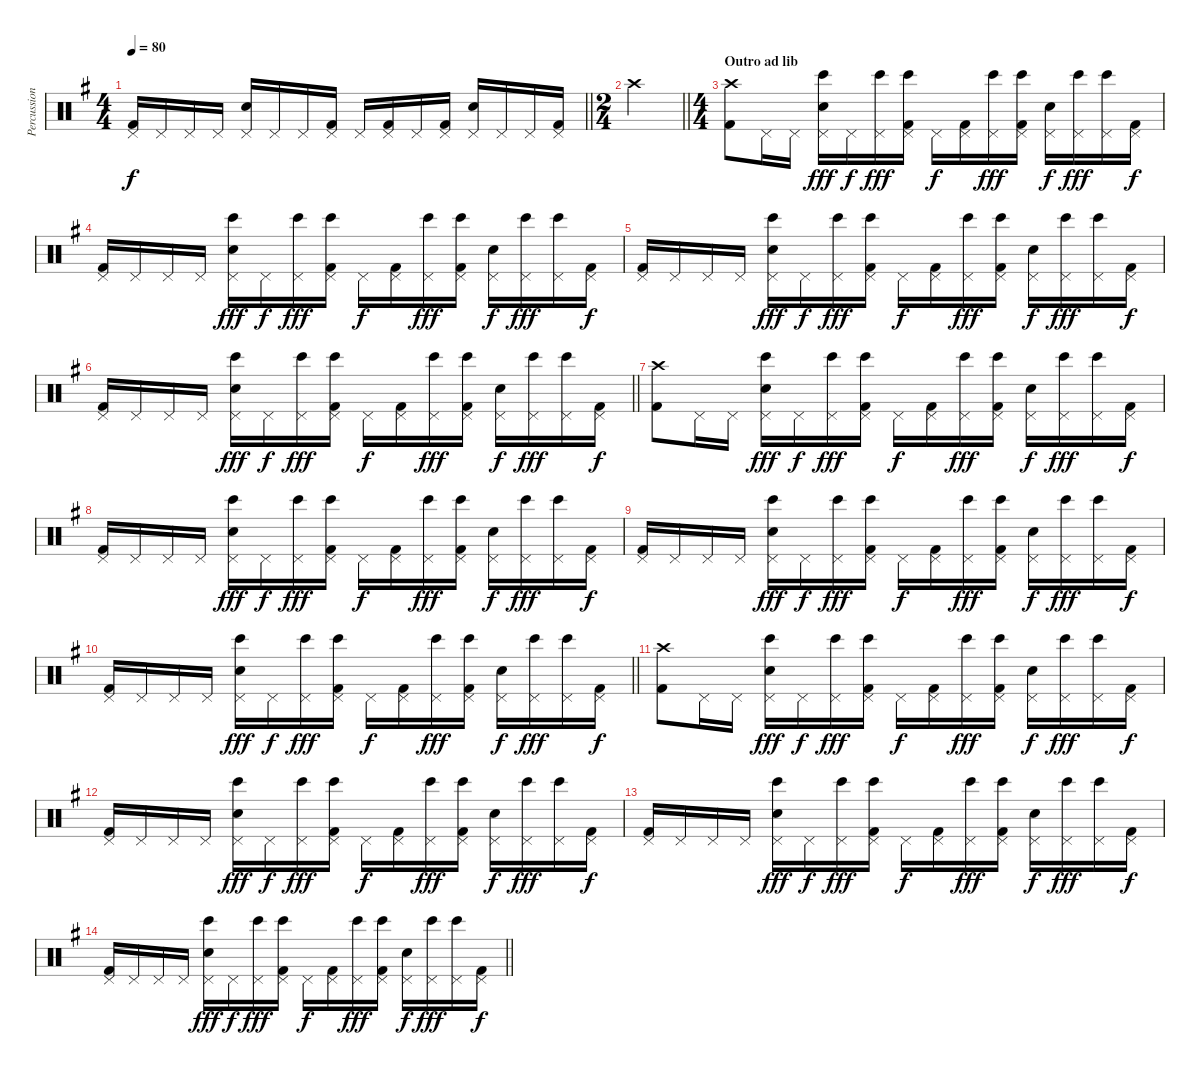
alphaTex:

\track ("Percussion" "Percussion") {instrument percussion}
\staff {score}
\articulation defaults
\ts (4 4)
\tempo 80
\clef neutral
\barLineRight lightlight
\ks g
("Pedal Hi-Hat (hit)" "Kick (hit) 2").16{dy f} "Pedal Hi-Hat (hit)".16 "Pedal Hi-Hat (hit)".16 "Pedal Hi-Hat (hit)".16 ("Pedal Hi-Hat (hit)" "Electric Snare (hit)").16 "Pedal Hi-Hat (hit)".16 "Pedal Hi-Hat (hit)".16 ("Pedal Hi-Hat (hit)" "Kick (hit) 2").16 "Pedal Hi-Hat (hit)".16 ("Pedal Hi-Hat (hit)" "Kick (hit) 2").16 "Pedal Hi-Hat (hit)".16 ("Pedal Hi-Hat (hit)" "Kick (hit) 2").16 ("Pedal Hi-Hat (hit)" "Electric Snare (hit)").16 "Pedal Hi-Hat (hit)".16 "Pedal Hi-Hat (hit)".16 ("Pedal Hi-Hat (hit)" "Kick (hit) 2").16 |
\ts (2 4)
\barLineRight lightlight "Crash high (hit)".2
|
\ts (4 4)
\section ("" "Outro ad lib")
("Crash high (hit)" "Kick (hit) 2").8 "Pedal Hi-Hat (hit)".16 "Pedal Hi-Hat (hit)".16 ("Bongo High (hit)" "Pedal Hi-Hat (hit)" "Electric Snare (hit)").16{dy fff} "Pedal Hi-Hat (hit)".16{dy f} ("Bongo High (hit)" "Pedal Hi-Hat (hit)").16{dy fff} ("Bongo High (hit)" "Pedal Hi-Hat (hit)" "Kick (hit) 2").16 "Pedal Hi-Hat (hit)".16{dy f} ("Pedal Hi-Hat (hit)" "Kick (hit) 2").16 ("Bongo High (hit)" "Pedal Hi-Hat (hit)").16{dy fff} ("Bongo High (hit)" "Pedal Hi-Hat (hit)" "Kick (hit) 2").16 ("Pedal Hi-Hat (hit)" "Electric Snare (hit)").16{dy f} ("Bongo High (hit)" "Pedal Hi-Hat (hit)").16{dy fff} ("Bongo High (hit)" "Pedal Hi-Hat (hit)").16 ("Pedal Hi-Hat (hit)" "Kick (hit) 2").16{dy f} |
("Pedal Hi-Hat (hit)" "Kick (hit) 2").16 "Pedal Hi-Hat (hit)".16 "Pedal Hi-Hat (hit)".16 "Pedal Hi-Hat (hit)".16 ("Bongo High (hit)" "Pedal Hi-Hat (hit)" "Electric Snare (hit)").16{dy fff} "Pedal Hi-Hat (hit)".16{dy f} ("Bongo High (hit)" "Pedal Hi-Hat (hit)").16{dy fff} ("Bongo High (hit)" "Pedal Hi-Hat (hit)" "Kick (hit) 2").16 "Pedal Hi-Hat (hit)".16{dy f} ("Pedal Hi-Hat (hit)" "Kick (hit) 2").16 ("Bongo High (hit)" "Pedal Hi-Hat (hit)").16{dy fff} ("Bongo High (hit)" "Pedal Hi-Hat (hit)" "Kick (hit) 2").16 ("Pedal Hi-Hat (hit)" "Electric Snare (hit)").16{dy f} ("Bongo High (hit)" "Pedal Hi-Hat (hit)").16{dy fff} ("Bongo High (hit)" "Pedal Hi-Hat (hit)").16 ("Pedal Hi-Hat (hit)" "Kick (hit) 2").16{dy f} |
("Pedal Hi-Hat (hit)" "Kick (hit) 2").16 "Pedal Hi-Hat (hit)".16 "Pedal Hi-Hat (hit)".16 "Pedal Hi-Hat (hit)".16 ("Bongo High (hit)" "Pedal Hi-Hat (hit)" "Electric Snare (hit)").16{dy fff} "Pedal Hi-Hat (hit)".16{dy f} ("Bongo High (hit)" "Pedal Hi-Hat (hit)").16{dy fff} ("Bongo High (hit)" "Pedal Hi-Hat (hit)" "Kick (hit) 2").16 "Pedal Hi-Hat (hit)".16{dy f} ("Pedal Hi-Hat (hit)" "Kick (hit) 2").16 ("Bongo High (hit)" "Pedal Hi-Hat (hit)").16{dy fff} ("Bongo High (hit)" "Pedal Hi-Hat (hit)" "Kick (hit) 2").16 ("Pedal Hi-Hat (hit)" "Electric Snare (hit)").16{dy f} ("Bongo High (hit)" "Pedal Hi-Hat (hit)").16{dy fff} ("Bongo High (hit)" "Pedal Hi-Hat (hit)").16 ("Pedal Hi-Hat (hit)" "Kick (hit) 2").16{dy f} |
\barLineRight lightlight
("Pedal Hi-Hat (hit)" "Kick (hit) 2").16 "Pedal Hi-Hat (hit)".16 "Pedal Hi-Hat (hit)".16 "Pedal Hi-Hat (hit)".16 ("Bongo High (hit)" "Pedal Hi-Hat (hit)" "Electric Snare (hit)").16{dy fff} "Pedal Hi-Hat (hit)".16{dy f} ("Bongo High (hit)" "Pedal Hi-Hat (hit)").16{dy fff} ("Bongo High (hit)" "Pedal Hi-Hat (hit)" "Kick (hit) 2").16 "Pedal Hi-Hat (hit)".16{dy f} ("Pedal Hi-Hat (hit)" "Kick (hit) 2").16 ("Bongo High (hit)" "Pedal Hi-Hat (hit)").16{dy fff} ("Bongo High (hit)" "Pedal Hi-Hat (hit)" "Kick (hit) 2").16 ("Pedal Hi-Hat (hit)" "Electric Snare (hit)").16{dy f} ("Bongo High (hit)" "Pedal Hi-Hat (hit)").16{dy fff} ("Bongo High (hit)" "Pedal Hi-Hat (hit)").16 ("Pedal Hi-Hat (hit)" "Kick (hit) 2").16{dy f} |
("Crash high (hit)" "Kick (hit) 2").8 "Pedal Hi-Hat (hit)".16 "Pedal Hi-Hat (hit)".16 ("Bongo High (hit)" "Pedal Hi-Hat (hit)" "Electric Snare (hit)").16{dy fff} "Pedal Hi-Hat (hit)".16{dy f} ("Bongo High (hit)" "Pedal Hi-Hat (hit)").16{dy fff} ("Bongo High (hit)" "Pedal Hi-Hat (hit)" "Kick (hit) 2").16 "Pedal Hi-Hat (hit)".16{dy f} ("Pedal Hi-Hat (hit)" "Kick (hit) 2").16 ("Bongo High (hit)" "Pedal Hi-Hat (hit)").16{dy fff} ("Bongo High (hit)" "Pedal Hi-Hat (hit)" "Kick (hit) 2").16 ("Pedal Hi-Hat (hit)" "Electric Snare (hit)").16{dy f} ("Bongo High (hit)" "Pedal Hi-Hat (hit)").16{dy fff} ("Bongo High (hit)" "Pedal Hi-Hat (hit)").16 ("Pedal Hi-Hat (hit)" "Kick (hit) 2").16{dy f} |
("Pedal Hi-Hat (hit)" "Kick (hit) 2").16 "Pedal Hi-Hat (hit)".16 "Pedal Hi-Hat (hit)".16 "Pedal Hi-Hat (hit)".16 ("Bongo High (hit)" "Pedal Hi-Hat (hit)" "Electric Snare (hit)").16{dy fff} "Pedal Hi-Hat (hit)".16{dy f} ("Bongo High (hit)" "Pedal Hi-Hat (hit)").16{dy fff} ("Bongo High (hit)" "Pedal Hi-Hat (hit)" "Kick (hit) 2").16 "Pedal Hi-Hat (hit)".16{dy f} ("Pedal Hi-Hat (hit)" "Kick (hit) 2").16 ("Bongo High (hit)" "Pedal Hi-Hat (hit)").16{dy fff} ("Bongo High (hit)" "Pedal Hi-Hat (hit)" "Kick (hit) 2").16 ("Pedal Hi-Hat (hit)" "Electric Snare (hit)").16{dy f} ("Bongo High (hit)" "Pedal Hi-Hat (hit)").16{dy fff} ("Bongo High (hit)" "Pedal Hi-Hat (hit)").16 ("Pedal Hi-Hat (hit)" "Kick (hit) 2").16{dy f} |
("Pedal Hi-Hat (hit)" "Kick (hit) 2").16 "Pedal Hi-Hat (hit)".16 "Pedal Hi-Hat (hit)".16 "Pedal Hi-Hat (hit)".16 ("Bongo High (hit)" "Pedal Hi-Hat (hit)" "Electric Snare (hit)").16{dy fff} "Pedal Hi-Hat (hit)".16{dy f} ("Bongo High (hit)" "Pedal Hi-Hat (hit)").16{dy fff} ("Bongo High (hit)" "Pedal Hi-Hat (hit)" "Kick (hit) 2").16 "Pedal Hi-Hat (hit)".16{dy f} ("Pedal Hi-Hat (hit)" "Kick (hit) 2").16 ("Bongo High (hit)" "Pedal Hi-Hat (hit)").16{dy fff} ("Bongo High (hit)" "Pedal Hi-Hat (hit)" "Kick (hit) 2").16 ("Pedal Hi-Hat (hit)" "Electric Snare (hit)").16{dy f} ("Bongo High (hit)" "Pedal Hi-Hat (hit)").16{dy fff} ("Bongo High (hit)" "Pedal Hi-Hat (hit)").16 ("Pedal Hi-Hat (hit)" "Kick (hit) 2").16{dy f} |
\barLineRight lightlight
("Pedal Hi-Hat (hit)" "Kick (hit) 2").16 "Pedal Hi-Hat (hit)".16 "Pedal Hi-Hat (hit)".16 "Pedal Hi-Hat (hit)".16 ("Bongo High (hit)" "Pedal Hi-Hat (hit)" "Electric Snare (hit)").16{dy fff} "Pedal Hi-Hat (hit)".16{dy f} ("Bongo High (hit)" "Pedal Hi-Hat (hit)").16{dy fff} ("Bongo High (hit)" "Pedal Hi-Hat (hit)" "Kick (hit) 2").16 "Pedal Hi-Hat (hit)".16{dy f} ("Pedal Hi-Hat (hit)" "Kick (hit) 2").16 ("Bongo High (hit)" "Pedal Hi-Hat (hit)").16{dy fff} ("Bongo High (hit)" "Pedal Hi-Hat (hit)" "Kick (hit) 2").16 ("Pedal Hi-Hat (hit)" "Electric Snare (hit)").16{dy f} ("Bongo High (hit)" "Pedal Hi-Hat (hit)").16{dy fff} ("Bongo High (hit)" "Pedal Hi-Hat (hit)").16 ("Pedal Hi-Hat (hit)" "Kick (hit) 2").16{dy f} |
("Crash high (hit)" "Kick (hit) 2").8 "Pedal Hi-Hat (hit)".16 "Pedal Hi-Hat (hit)".16 ("Bongo High (hit)" "Pedal Hi-Hat (hit)" "Electric Snare (hit)").16{dy fff} "Pedal Hi-Hat (hit)".16{dy f} ("Bongo High (hit)" "Pedal Hi-Hat (hit)").16{dy fff} ("Bongo High (hit)" "Pedal Hi-Hat (hit)" "Kick (hit) 2").16 "Pedal Hi-Hat (hit)".16{dy f} ("Pedal Hi-Hat (hit)" "Kick (hit) 2").16 ("Bongo High (hit)" "Pedal Hi-Hat (hit)").16{dy fff} ("Bongo High (hit)" "Pedal Hi-Hat (hit)" "Kick (hit) 2").16 ("Pedal Hi-Hat (hit)" "Electric Snare (hit)").16{dy f} ("Bongo High (hit)" "Pedal Hi-Hat (hit)").16{dy fff} ("Bongo High (hit)" "Pedal Hi-Hat (hit)").16 ("Pedal Hi-Hat (hit)" "Kick (hit) 2").16{dy f} |
("Pedal Hi-Hat (hit)" "Kick (hit) 2").16 "Pedal Hi-Hat (hit)".16 "Pedal Hi-Hat (hit)".16 "Pedal Hi-Hat (hit)".16 ("Bongo High (hit)" "Pedal Hi-Hat (hit)" "Electric Snare (hit)").16{dy fff} "Pedal Hi-Hat (hit)".16{dy f} ("Bongo High (hit)" "Pedal Hi-Hat (hit)").16{dy fff} ("Bongo High (hit)" "Pedal Hi-Hat (hit)" "Kick (hit) 2").16 "Pedal Hi-Hat (hit)".16{dy f} ("Pedal Hi-Hat (hit)" "Kick (hit) 2").16 ("Bongo High (hit)" "Pedal Hi-Hat (hit)").16{dy fff} ("Bongo High (hit)" "Pedal Hi-Hat (hit)" "Kick (hit) 2").16 ("Pedal Hi-Hat (hit)" "Electric Snare (hit)").16{dy f} ("Bongo High (hit)" "Pedal Hi-Hat (hit)").16{dy fff} ("Bongo High (hit)" "Pedal Hi-Hat (hit)").16 ("Pedal Hi-Hat (hit)" "Kick (hit) 2").16{dy f} |
("Pedal Hi-Hat (hit)" "Kick (hit) 2").16{volume 0} "Pedal Hi-Hat (hit)".16 "Pedal Hi-Hat (hit)".16 "Pedal Hi-Hat (hit)".16 ("Bongo High (hit)" "Pedal Hi-Hat (hit)" "Electric Snare (hit)").16{dy fff} "Pedal Hi-Hat (hit)".16{dy f} ("Bongo High (hit)" "Pedal Hi-Hat (hit)").16{dy fff} ("Bongo High (hit)" "Pedal Hi-Hat (hit)" "Kick (hit) 2").16 "Pedal Hi-Hat (hit)".16{dy f} ("Pedal Hi-Hat (hit)" "Kick (hit) 2").16 ("Bongo High (hit)" "Pedal Hi-Hat (hit)").16{dy fff} ("Bongo High (hit)" "Pedal Hi-Hat (hit)" "Kick (hit) 2").16 ("Pedal Hi-Hat (hit)" "Electric Snare (hit)").16{dy f} ("Bongo High (hit)" "Pedal Hi-Hat (hit)").16{dy fff} ("Bongo High (hit)" "Pedal Hi-Hat (hit)").16 ("Pedal Hi-Hat (hit)" "Kick (hit) 2").16{dy f} |
\barLineRight lightlight
("Pedal Hi-Hat (hit)" "Kick (hit) 2").16 "Pedal Hi-Hat (hit)".16 "Pedal Hi-Hat (hit)".16 "Pedal Hi-Hat (hit)".16 ("Bongo High (hit)" "Pedal Hi-Hat (hit)" "Electric Snare (hit)").16{dy fff} "Pedal Hi-Hat (hit)".16{dy f} ("Bongo High (hit)" "Pedal Hi-Hat (hit)").16{dy fff} ("Bongo High (hit)" "Pedal Hi-Hat (hit)" "Kick (hit) 2").16 "Pedal Hi-Hat (hit)".16{dy f} ("Pedal Hi-Hat (hit)" "Kick (hit) 2").16 ("Bongo High (hit)" "Pedal Hi-Hat (hit)").16{dy fff} ("Bongo High (hit)" "Pedal Hi-Hat (hit)" "Kick (hit) 2").16 ("Pedal Hi-Hat (hit)" "Electric Snare (hit)").16{dy f} ("Bongo High (hit)" "Pedal Hi-Hat (hit)").16{dy fff} ("Bongo High (hit)" "Pedal Hi-Hat (hit)").16 ("Pedal Hi-Hat (hit)" "Kick (hit) 2").16{dy f}
